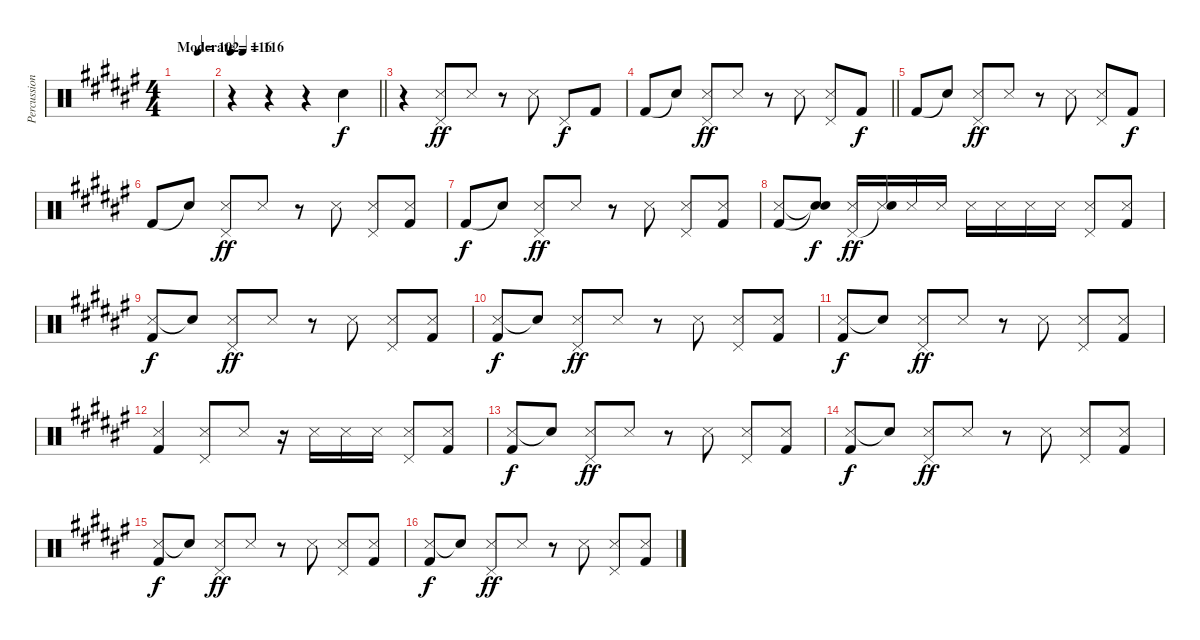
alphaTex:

\track ("Percussion" "Percussion") {instrument percussion}
\staff {score}
\articulation defaults
\ts (4 4)
\tempo (116 "Moderate")
\tempo (102 0.625)
\tempo (116 "Moderate")
\clef neutral
\ks f#
|
\tempo 116
\barLineRight lightlight
r.4 r.4 r.4 "Snare (hit) 2".4 |
r.4 ("Snare (side stick) 3" "Pedal Hi-Hat (hit)").8{dy ff} "Snare (side stick) 3".8 r.8 "Snare (side stick) 3".8 "Pedal Hi-Hat (hit)".8{dy f} "Kick (hit) 2".8 |
\barLineRight lightlight "Kick (hit) 2".8 "Snare (hit)"{t}.8
("Snare (side stick) 3" "Pedal Hi-Hat (hit)").8{dy ff} "Snare (side stick) 3".8 r.8 "Snare (side stick) 3".8 ("Snare (side stick) 3" "Pedal Hi-Hat (hit)").8 "Kick (hit) 2".8{dy f} |
"Kick (hit) 2".8 "Snare (hit)"{t}.8 ("Snare (side stick) 3" "Pedal Hi-Hat (hit)").8{dy ff} "Snare (side stick) 3".8 r.8 "Snare (side stick) 3".8 ("Snare (side stick) 3" "Pedal Hi-Hat (hit)").8 "Kick (hit) 2".8{dy f} |
"Kick (hit) 2".8 "Snare (hit)"{t}.8 ("Snare (side stick) 3" "Pedal Hi-Hat (hit)").8{dy ff} "Snare (side stick) 3".8 r.8 "Snare (side stick) 3".8 ("Snare (side stick) 3" "Pedal Hi-Hat (hit)").8 ("Snare (side stick) 3" "Kick (hit) 2").8 |
"Kick (hit) 2".8{dy f} "Snare (hit)"{t}.8 ("Snare (side stick) 3" "Pedal Hi-Hat (hit)").8{dy ff} "Snare (side stick) 3".8 r.8 "Snare (side stick) 3".8 ("Snare (side stick) 3" "Pedal Hi-Hat (hit)").8 ("Snare (side stick) 3" "Kick (hit) 2").8 |
("Snare (side stick) 3" "Kick (hit) 2").8 ("Snare (hit)"{t} "Snare (hit)"{t}).8{dy f} ("Snare (side stick) 3" "Pedal Hi-Hat (hit)").16{dy ff} ("Snare (side stick) 3" "Snare (hit)"{t}).16 "Snare (side stick) 3".16 "Snare (side stick) 3".16 "Snare (side stick) 3".16 "Snare (side stick) 3".16 "Snare (side stick) 3".16 "Snare (side stick) 3".16 ("Snare (side stick) 3" "Pedal Hi-Hat (hit)").8 ("Snare (side stick) 3" "Kick (hit) 2").8 |
("Snare (side stick) 3" "Kick (hit) 2").8{dy f} "Snare (hit)"{t}.8 ("Snare (side stick) 3" "Pedal Hi-Hat (hit)").8{dy ff} "Snare (side stick) 3".8 r.8 "Snare (side stick) 3".8 ("Snare (side stick) 3" "Pedal Hi-Hat (hit)").8 ("Snare (side stick) 3" "Kick (hit) 2").8 |
("Snare (side stick) 3" "Kick (hit) 2").8{dy f} "Snare (hit)"{t}.8 ("Snare (side stick) 3" "Pedal Hi-Hat (hit)").8{dy ff} "Snare (side stick) 3".8 r.8 "Snare (side stick) 3".8 ("Snare (side stick) 3" "Pedal Hi-Hat (hit)").8 ("Snare (side stick) 3" "Kick (hit) 2").8 |
("Snare (side stick) 3" "Kick (hit) 2").8{dy f} "Snare (hit)"{t}.8 ("Snare (side stick) 3" "Pedal Hi-Hat (hit)").8{dy ff} "Snare (side stick) 3".8 r.8 "Snare (side stick) 3".8 ("Snare (side stick) 3" "Pedal Hi-Hat (hit)").8 ("Snare (side stick) 3" "Kick (hit) 2").8 |
("Snare (side stick) 3" "Kick (hit) 2").4 ("Snare (side stick) 3" "Pedal Hi-Hat (hit)").8 "Snare (side stick) 3".8 r.16 "Snare (side stick) 3".16 "Snare (side stick) 3".16 "Snare (side stick) 3".16 ("Snare (side stick) 3" "Pedal Hi-Hat (hit)").8 ("Snare (side stick) 3" "Kick (hit) 2").8 |
("Snare (side stick) 3" "Kick (hit) 2").8{dy f} "Snare (hit)"{t}.8 ("Snare (side stick) 3" "Pedal Hi-Hat (hit)").8{dy ff} "Snare (side stick) 3".8 r.8 "Snare (side stick) 3".8 ("Snare (side stick) 3" "Pedal Hi-Hat (hit)").8 ("Snare (side stick) 3" "Kick (hit) 2").8 |
("Snare (side stick) 3" "Kick (hit) 2").8{dy f} "Snare (hit)"{t}.8 ("Snare (side stick) 3" "Pedal Hi-Hat (hit)").8{dy ff} "Snare (side stick) 3".8 r.8 "Snare (side stick) 3".8 ("Snare (side stick) 3" "Pedal Hi-Hat (hit)").8 ("Snare (side stick) 3" "Kick (hit) 2").8 |
("Snare (side stick) 3" "Kick (hit) 2").8{dy f} "Snare (hit)"{t}.8 ("Snare (side stick) 3" "Pedal Hi-Hat (hit)").8{dy ff} "Snare (side stick) 3".8 r.8 "Snare (side stick) 3".8 ("Snare (side stick) 3" "Pedal Hi-Hat (hit)").8 ("Snare (side stick) 3" "Kick (hit) 2").8 |
("Snare (side stick) 3" "Kick (hit) 2").8{dy f} "Snare (hit)"{t}.8 ("Snare (side stick) 3" "Pedal Hi-Hat (hit)").8{dy ff} "Snare (side stick) 3".8 r.8 "Snare (side stick) 3".8 ("Snare (side stick) 3" "Pedal Hi-Hat (hit)").8 ("Snare (side stick) 3" "Kick (hit) 2").8
